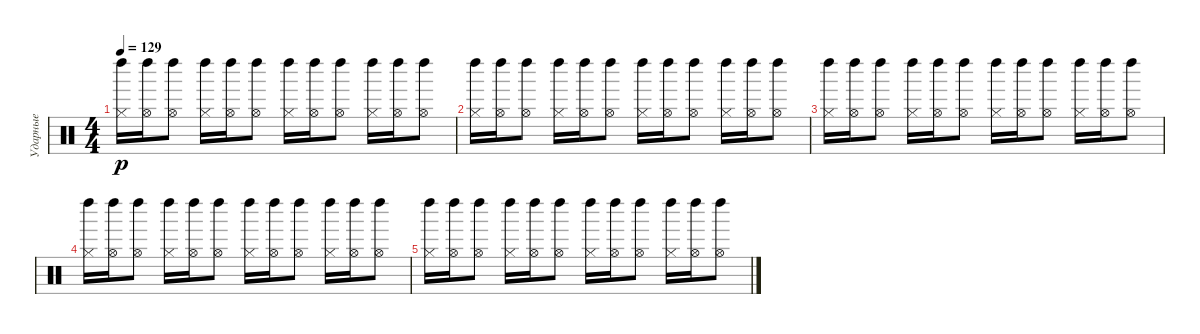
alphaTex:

\track ("Ударные" "Ударные") {instrument percussion}
\staff {score}
\articulation defaults
\ts (4 4)
\tempo 129
\clef neutral
\ks c
("Hi-Hat (closed)" "Left Maraca (hit)").16{dy p} ("Left Maraca (hit)" "Hi-Hat (open)").16 ("Left Maraca (hit)" "Hi-Hat (open)").8 ("Hi-Hat (closed)" "Left Maraca (hit)").16 ("Left Maraca (hit)" "Hi-Hat (open)").16 ("Left Maraca (hit)" "Hi-Hat (open)").8 ("Hi-Hat (closed)" "Left Maraca (hit)").16 ("Left Maraca (hit)" "Hi-Hat (open)").16 ("Left Maraca (hit)" "Hi-Hat (open)").8 ("Hi-Hat (closed)" "Left Maraca (hit)").16 ("Left Maraca (hit)" "Hi-Hat (open)").16 ("Left Maraca (hit)" "Hi-Hat (open)").8 |
("Hi-Hat (closed)" "Left Maraca (hit)").16 ("Left Maraca (hit)" "Hi-Hat (open)").16 ("Left Maraca (hit)" "Hi-Hat (open)").8 ("Hi-Hat (closed)" "Left Maraca (hit)").16 ("Left Maraca (hit)" "Hi-Hat (open)").16 ("Left Maraca (hit)" "Hi-Hat (open)").8 ("Hi-Hat (closed)" "Left Maraca (hit)").16 ("Left Maraca (hit)" "Hi-Hat (open)").16 ("Left Maraca (hit)" "Hi-Hat (open)").8 ("Hi-Hat (closed)" "Left Maraca (hit)").16 ("Left Maraca (hit)" "Hi-Hat (open)").16 ("Left Maraca (hit)" "Hi-Hat (open)").8 |
("Hi-Hat (closed)" "Left Maraca (hit)").16 ("Left Maraca (hit)" "Hi-Hat (open)").16 ("Left Maraca (hit)" "Hi-Hat (open)").8 ("Hi-Hat (closed)" "Left Maraca (hit)").16 ("Left Maraca (hit)" "Hi-Hat (open)").16 ("Left Maraca (hit)" "Hi-Hat (open)").8 ("Hi-Hat (closed)" "Left Maraca (hit)").16 ("Left Maraca (hit)" "Hi-Hat (open)").16 ("Left Maraca (hit)" "Hi-Hat (open)").8 ("Hi-Hat (closed)" "Left Maraca (hit)").16 ("Left Maraca (hit)" "Hi-Hat (open)").16 ("Left Maraca (hit)" "Hi-Hat (open)").8 |
("Hi-Hat (closed)" "Left Maraca (hit)").16 ("Left Maraca (hit)" "Hi-Hat (open)").16 ("Left Maraca (hit)" "Hi-Hat (open)").8 ("Hi-Hat (closed)" "Left Maraca (hit)").16 ("Left Maraca (hit)" "Hi-Hat (open)").16 ("Left Maraca (hit)" "Hi-Hat (open)").8 ("Hi-Hat (closed)" "Left Maraca (hit)").16 ("Left Maraca (hit)" "Hi-Hat (open)").16 ("Left Maraca (hit)" "Hi-Hat (open)").8 ("Hi-Hat (closed)" "Left Maraca (hit)").16 ("Left Maraca (hit)" "Hi-Hat (open)").16 ("Left Maraca (hit)" "Hi-Hat (open)").8 |
("Hi-Hat (closed)" "Left Maraca (hit)").16 ("Left Maraca (hit)" "Hi-Hat (open)").16 ("Left Maraca (hit)" "Hi-Hat (open)").8 ("Hi-Hat (closed)" "Left Maraca (hit)").16 ("Left Maraca (hit)" "Hi-Hat (open)").16 ("Left Maraca (hit)" "Hi-Hat (open)").8 ("Hi-Hat (closed)" "Left Maraca (hit)").16 ("Left Maraca (hit)" "Hi-Hat (open)").16 ("Left Maraca (hit)" "Hi-Hat (open)").8 ("Hi-Hat (closed)" "Left Maraca (hit)").16 ("Left Maraca (hit)" "Hi-Hat (open)").16 ("Left Maraca (hit)" "Hi-Hat (open)").8
